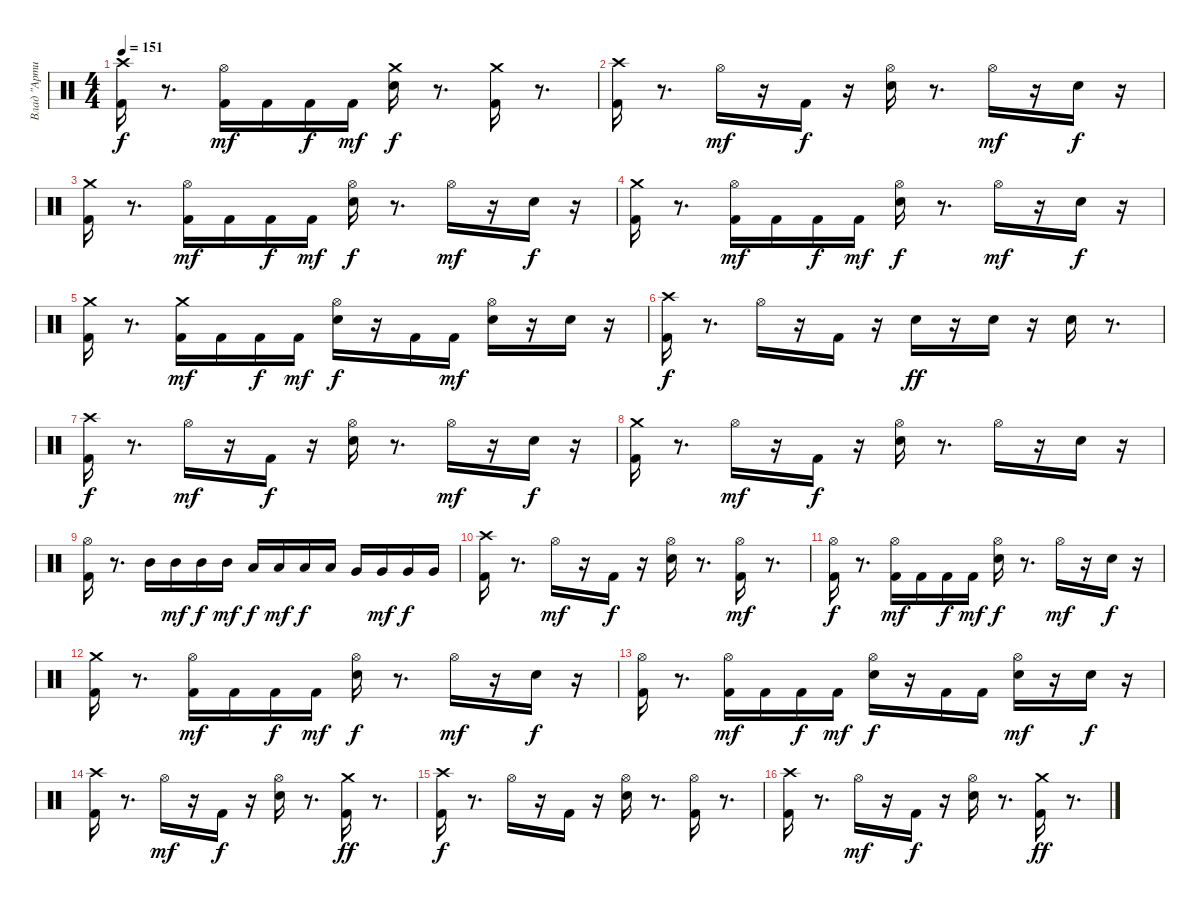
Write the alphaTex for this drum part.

\track ("Влад \"Артист\"" "Влад \"Арти") {instrument percussion}
\staff {score}
\articulation defaults
\ts (4 4)
\tempo 151
\clef neutral
\ks c
("Crash high (hit)" "Kick (hit) 2").16{dy f} r.8{d} ("Kick (hit) 2" "Hi-Hat (open)").16{dy mf} "Kick (hit) 2".16 "Kick (hit) 2".16{dy f} "Kick (hit) 2".16{dy mf} ("Snare (hit) 2" "Crash medium (hit)").16{dy f} r.8{d} ("Crash medium (hit)" "Kick (hit) 2").16 r.8{d} |
("Crash high (hit)" "Kick (hit) 2").16 r.8{d} "Hi-Hat (open)".16{dy mf} r.16 "Kick (hit) 2".16{dy f} r.16 ("Snare (hit) 2" "Hi-Hat (open)").16 r.8{d} "Hi-Hat (open)".16{dy mf} r.16 "Snare (hit) 2".16{dy f} r.16 |
("Kick (hit) 2" "Crash medium (hit)").16 r.8{d} ("Hi-Hat (open)" "Kick (hit) 2").16{dy mf} "Kick (hit) 2".16 "Kick (hit) 2".16{dy f} "Kick (hit) 2".16{dy mf} ("Hi-Hat (open)" "Snare (hit) 2").16{dy f} r.8{d} "Hi-Hat (open)".16{dy mf} r.16 "Snare (hit) 2".16{dy f} r.16 |
("Crash medium (hit)" "Kick (hit) 2").16 r.8{d} ("Hi-Hat (open)" "Kick (hit) 2").16{dy mf} "Kick (hit) 2".16 "Kick (hit) 2".16{dy f} "Kick (hit) 2".16{dy mf} ("Hi-Hat (open)" "Snare (hit) 2").16{dy f} r.8{d} "Hi-Hat (open)".16{dy mf} r.16 "Snare (hit) 2".16{dy f} r.16 |
("Kick (hit) 2" "Crash medium (hit)").16 r.8{d} ("Crash medium (hit)" "Kick (hit) 2").16{dy mf} "Kick (hit) 2".16 "Kick (hit) 2".16{dy f} "Kick (hit) 2".16{dy mf} ("Hi-Hat (open)" "Snare (hit) 2").16{dy f} r.16 "Kick (hit) 2".16 "Kick (hit) 2".16{dy mf} ("Hi-Hat (open)" "Snare (hit) 2").16 r.16 "Snare (hit) 2".16 r.16 |
("Crash high (hit)" "Kick (hit) 2").16{dy f} r.8{d} "Hi-Hat (open)".16 r.16 "Kick (hit) 2".16 r.16 "Snare (hit) 2".16{dy ff} r.16 "Snare (hit) 2".16 r.16 "Snare (hit) 2".16 r.8{d} |
("Crash high (hit)" "Kick (hit) 2").16{dy f} r.8{d} "Hi-Hat (open)".16{dy mf} r.16 "Kick (hit) 2".16{dy f} r.16 ("Snare (hit) 2" "Hi-Hat (open)").16 r.8{d} "Hi-Hat (open)".16{dy mf} r.16 "Snare (hit) 2".16{dy f} r.16 |
("Crash medium (hit)" "Kick (hit) 2").16 r.8{d} "Hi-Hat (open)".16{dy mf} r.16 "Kick (hit) 2".16{dy f} r.16 ("Hi-Hat (open)" "Snare (hit) 2").16 r.8{d} "Hi-Hat (open)".16 r.16 "Snare (hit) 2".16 r.16 |
("Hi-Hat (open)" "Kick (hit) 2").16 r.8{d} "Mid Tom (hit)".16 "Mid Tom (hit)".16{dy mf} "Mid Tom (hit)".16{dy f} "Mid Tom (hit)".16{dy mf} "Low Tom (hit)".16{dy f} "Low Tom (hit)".16{dy mf} "Low Tom (hit)".16{dy f} "Low Tom (hit)".16 "Very Low Tom (hit)".16 "Very Low Tom (hit)".16{dy mf} "Very Low Tom (hit)".16{dy f} "Very Low Tom (hit)".16 |
("Kick (hit) 2" "Crash high (hit)").16 r.8{d} "Hi-Hat (open)".16{dy mf} r.16 "Kick (hit) 2".16{dy f} r.16 ("Snare (hit) 2" "Hi-Hat (open)").16 r.8{d} ("Hi-Hat (open)" "Kick (hit) 2").16{dy mf} r.8{d} |
("Kick (hit) 2" "Hi-Hat (open)").16{dy f} r.8{d} ("Hi-Hat (open)" "Kick (hit) 2").16{dy mf} "Kick (hit) 2".16 "Kick (hit) 2".16{dy f} "Kick (hit) 2".16{dy mf} ("Hi-Hat (open)" "Snare (hit) 2").16{dy f} r.8{d} "Hi-Hat (open)".16{dy mf} r.16 "Snare (hit) 2".16{dy f} r.16 |
("Crash medium (hit)" "Kick (hit) 2").16 r.8{d} ("Hi-Hat (open)" "Kick (hit) 2").16{dy mf} "Kick (hit) 2".16 "Kick (hit) 2".16{dy f} "Kick (hit) 2".16{dy mf} ("Hi-Hat (open)" "Snare (hit) 2").16{dy f} r.8{d} "Hi-Hat (open)".16{dy mf} r.16 "Snare (hit) 2".16{dy f} r.16 |
("Kick (hit) 2" "Hi-Hat (open)").16 r.8{d} ("Hi-Hat (open)" "Kick (hit) 2").16{dy mf} "Kick (hit) 2".16 "Kick (hit) 2".16{dy f} "Kick (hit) 2".16{dy mf} ("Hi-Hat (open)" "Snare (hit) 2").16{dy f} r.16 "Kick (hit) 2".16 "Kick (hit) 2".16 ("Hi-Hat (open)" "Snare (hit) 2").16{dy mf} r.16 "Snare (hit) 2".16{dy f} r.16 |
("Kick (hit) 2" "Crash high (hit)").16 r.8{d} "Hi-Hat (open)".16{dy mf} r.16 "Kick (hit) 2".16{dy f} r.16 ("Snare (hit) 2" "Hi-Hat (open)").16 r.8{d} ("Kick (hit) 2" "Crash medium (hit)").16{dy ff} r.8{d} |
("Kick (hit) 2" "Crash high (hit)").16{dy f} r.8{d} "Hi-Hat (open)".16 r.16 "Kick (hit) 2".16 r.16 ("Snare (hit) 2" "Hi-Hat (open)").16 r.8{d} ("Hi-Hat (open)" "Kick (hit) 2").16 r.8{d} |
("Crash high (hit)" "Kick (hit) 2").16 r.8{d} "Hi-Hat (open)".16{dy mf} r.16 "Kick (hit) 2".16{dy f} r.16 ("Hi-Hat (open)" "Snare (hit) 2").16 r.8{d} ("Crash medium (hit)" "Kick (hit) 2").16{dy ff} r.8{d}
